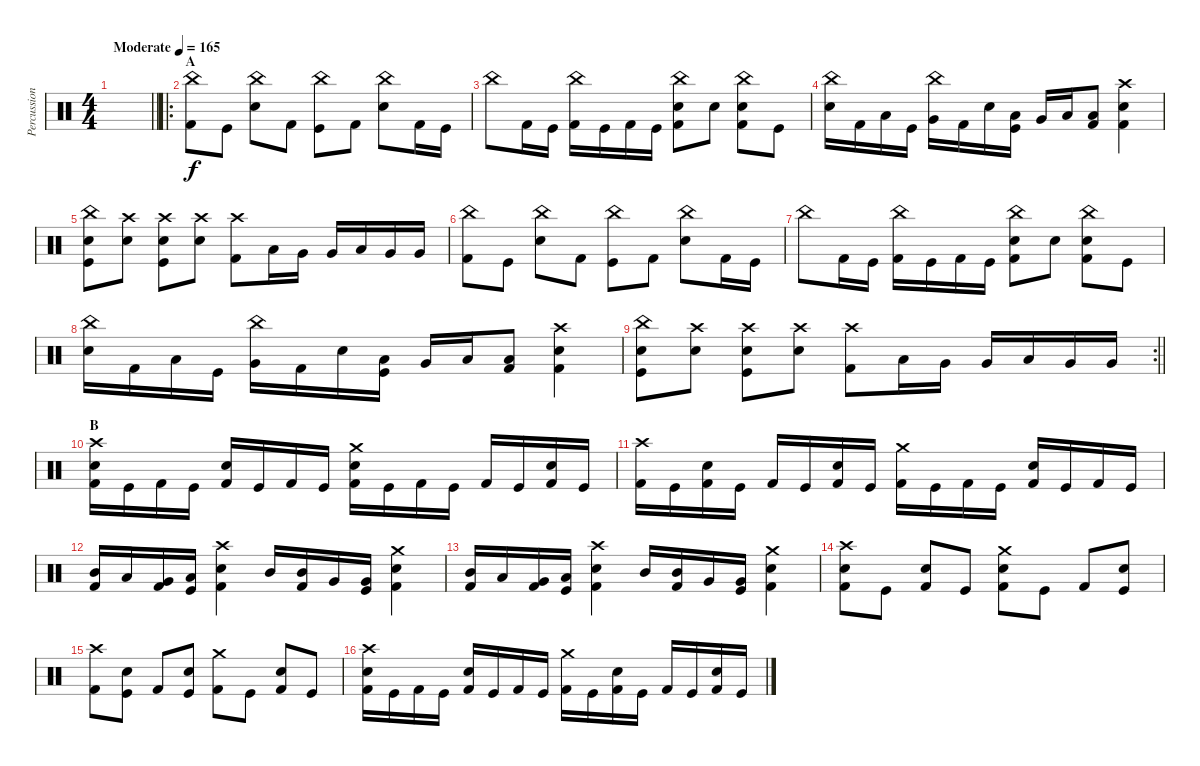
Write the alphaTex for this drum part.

\track ("Percussion" "Percussion") {instrument percussion}
\staff {score}
\articulation defaults
\ts (4 4)
\tempo (165 "Moderate")
\clef neutral
\barLineRight lightlight
\ks c
|
\ro
\section ("" "A")
("China (hit)" "Kick (hit) 2").8 "Kick (hit)".8 ("China (hit)" "Electric Snare (hit)").8 "Kick (hit) 2".8 ("China (hit)" "Kick (hit)").8 "Kick (hit) 2".8 ("China (hit)" "Electric Snare (hit)").8 "Kick (hit) 2".16 "Kick (hit)".16 |
"China (hit)".8 "Kick (hit) 2".16 "Kick (hit)".16 ("China (hit)" "Kick (hit) 2").16 "Kick (hit)".16 "Kick (hit) 2".16 "Kick (hit)".16 ("China (hit)" "Electric Snare (hit)" "Kick (hit) 2").8 "Electric Snare (hit)".8 ("China (hit)" "Electric Snare (hit)" "Kick (hit) 2").8 "Kick (hit)".8 |
("China (hit)" "Electric Snare (hit)").16 "Kick (hit) 2".16 "Low Tom (hit)".16 "Kick (hit)".16 ("China (hit)" "Very Low Tom (hit)").16 "Kick (hit) 2".16 "Electric Snare (hit)".16 ("Low Tom (hit)" "Kick (hit)").16 "Very Low Tom (hit)".16 "Low Floor Tom (hit)".16 ("Low Tom (hit)" "Kick (hit) 2").8 ("Crash high (hit)" "Electric Snare (hit)" "Kick (hit) 2").4 |
("China (hit)" "Electric Snare (hit)" "Kick (hit)").8 ("Crash high (hit)" "Electric Snare (hit)").8 ("Crash high (hit)" "Electric Snare (hit)" "Kick (hit)").8 ("Crash high (hit)" "Electric Snare (hit)").8 ("Crash high (hit)" "Kick (hit) 2").8 "Low Tom (hit)".16 "Very Low Tom (hit)".16 "Very Low Tom (hit)".16 "Low Tom (hit)".16 "Very Low Tom (hit)".16 "Very Low Tom (hit)".16 |
("China (hit)" "Kick (hit) 2").8 "Kick (hit)".8 ("China (hit)" "Electric Snare (hit)").8 "Kick (hit) 2".8 ("China (hit)" "Kick (hit)").8 "Kick (hit) 2".8 ("China (hit)" "Electric Snare (hit)").8 "Kick (hit) 2".16 "Kick (hit)".16 |
"China (hit)".8 "Kick (hit) 2".16 "Kick (hit)".16 ("China (hit)" "Kick (hit) 2").16 "Kick (hit)".16 "Kick (hit) 2".16 "Kick (hit)".16 ("China (hit)" "Electric Snare (hit)" "Kick (hit) 2").8 "Electric Snare (hit)".8 ("China (hit)" "Electric Snare (hit)" "Kick (hit) 2").8 "Kick (hit)".8 |
("China (hit)" "Electric Snare (hit)").16 "Kick (hit) 2".16 "Low Tom (hit)".16 "Kick (hit)".16 ("China (hit)" "Very Low Tom (hit)").16 "Kick (hit) 2".16 "Electric Snare (hit)".16 ("Low Tom (hit)" "Kick (hit)").16 "Very Low Tom (hit)".16 "Low Floor Tom (hit)".16 ("Low Tom (hit)" "Kick (hit) 2").8 ("Crash high (hit)" "Electric Snare (hit)" "Kick (hit) 2").4 |
\rc 2
\barLineRight lightlight
("China (hit)" "Electric Snare (hit)" "Kick (hit)").8 ("Crash high (hit)" "Electric Snare (hit)").8 ("Crash high (hit)" "Electric Snare (hit)" "Kick (hit)").8 ("Crash high (hit)" "Electric Snare (hit)").8 ("Crash high (hit)" "Kick (hit) 2").8 "Low Tom (hit)".16 "Very Low Tom (hit)".16 "Very Low Tom (hit)".16 "Low Tom (hit)".16 "Very Low Tom (hit)".16 "Very Low Tom (hit)".16 |
\section ("" "B")
("Crash high (hit)" "Electric Snare (hit)" "Kick (hit) 2").16 "Kick (hit)".16 "Kick (hit) 2".16 "Kick (hit)".16 ("Electric Snare (hit)" "Kick (hit) 2").16 "Kick (hit)".16 "Kick (hit) 2".16 "Kick (hit)".16 ("Crash medium (hit)" "Electric Snare (hit)" "Kick (hit) 2").16 "Kick (hit)".16 "Kick (hit) 2".16 "Kick (hit)".16 "Kick (hit) 2".16 "Kick (hit)".16 ("Electric Snare (hit)" "Kick (hit) 2").16 "Kick (hit)".16 |
("Crash high (hit)" "Kick (hit) 2").16 "Kick (hit)".16 ("Electric Snare (hit)" "Kick (hit) 2").16 "Kick (hit)".16 "Kick (hit) 2".16 "Kick (hit)".16 ("Electric Snare (hit)" "Kick (hit) 2").16 "Kick (hit)".16 ("Crash medium (hit)" "Kick (hit) 2").16 "Kick (hit)".16 "Kick (hit) 2".16 "Kick (hit)".16 ("Electric Snare (hit)" "Kick (hit) 2").16 "Kick (hit)".16 "Kick (hit) 2".16 "Kick (hit)".16 |
("Mid Tom (hit)" "Kick (hit) 2").16 "Low Tom (hit)".16 ("Very Low Tom (hit)" "Kick (hit) 2").16 ("Low Floor Tom (hit)" "Kick (hit)").16 ("Crash high (hit)" "Electric Snare (hit)" "Kick (hit) 2").4 "Mid Tom (hit)".16 ("Mid Tom (hit)" "Kick (hit) 2").16 "Very Low Tom (hit)".16 ("Very Low Tom (hit)" "Kick (hit)").16 ("Crash medium (hit)" "Electric Snare (hit)" "Kick (hit) 2").4 |
("Mid Tom (hit)" "Kick (hit) 2").16 "Low Tom (hit)".16 ("Very Low Tom (hit)" "Kick (hit) 2").16 ("Low Floor Tom (hit)" "Kick (hit)").16 ("Crash high (hit)" "Electric Snare (hit)" "Kick (hit) 2").4 "Mid Tom (hit)".16 ("Mid Tom (hit)" "Kick (hit) 2").16 "Very Low Tom (hit)".16 ("Very Low Tom (hit)" "Kick (hit)").16 ("Crash medium (hit)" "Electric Snare (hit)" "Kick (hit) 2").4 |
("Crash high (hit)" "Electric Snare (hit)" "Kick (hit) 2").8 "Kick (hit)".8 ("Electric Snare (hit)" "Kick (hit) 2").8 "Kick (hit)".8 ("Crash medium (hit)" "Electric Snare (hit)" "Kick (hit) 2").8 "Kick (hit)".8 "Kick (hit) 2".8 ("Electric Snare (hit)" "Kick (hit)").8 |
("Crash high (hit)" "Kick (hit) 2").8 ("Electric Snare (hit)" "Kick (hit)").8 "Kick (hit) 2".8 ("Electric Snare (hit)" "Kick (hit)").8 ("Crash medium (hit)" "Kick (hit) 2").8 "Kick (hit)".8 ("Electric Snare (hit)" "Kick (hit) 2").8 "Kick (hit)".8 |
("Crash high (hit)" "Electric Snare (hit)" "Kick (hit) 2").16 "Kick (hit)".16 "Kick (hit) 2".16 "Kick (hit)".16 ("Electric Snare (hit)" "Kick (hit) 2").16 "Kick (hit)".16 "Kick (hit) 2".16 "Kick (hit)".16 ("Crash medium (hit)" "Kick (hit) 2").16 "Kick (hit)".16 ("Electric Snare (hit)" "Kick (hit) 2").16 "Kick (hit)".16 "Kick (hit) 2".16 "Kick (hit)".16 ("Electric Snare (hit)" "Kick (hit) 2").16 "Kick (hit)".16
